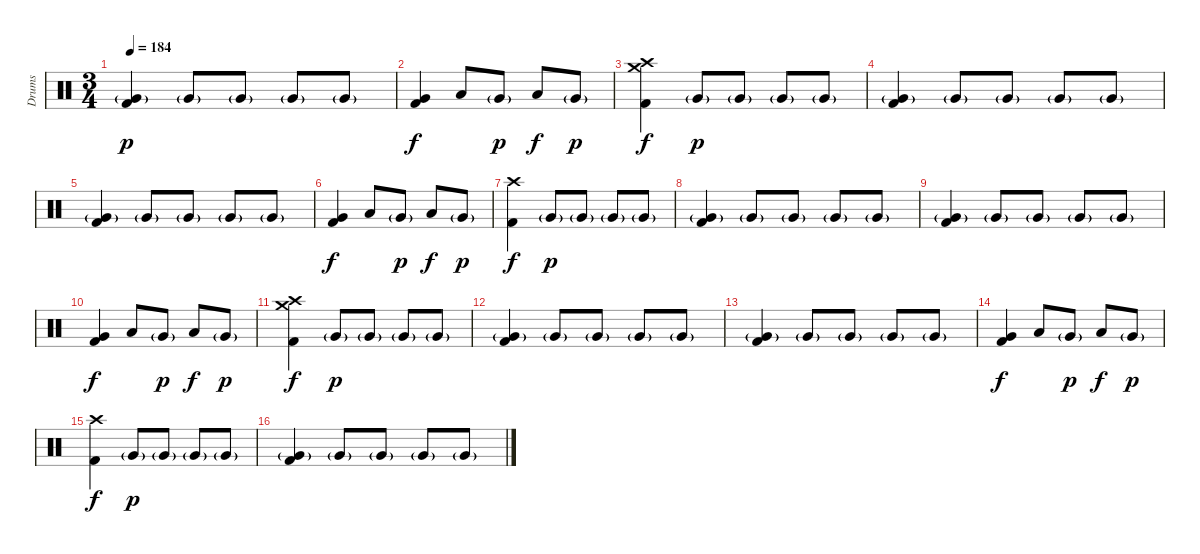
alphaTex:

\track ("Drums" "Drums") {instrument percussion}
\staff {score}
\articulation defaults
\ts (3 4)
\tempo 184
\clef neutral
\ks c
("Very Low Tom (hit)"{g} "Kick (hit) 2").4{dy p} "Very Low Tom (hit)"{g}.8 "Very Low Tom (hit)"{g}.8 "Very Low Tom (hit)"{g}.8 "Very Low Tom (hit)"{g}.8 |
("Very Low Tom (hit)" "Kick (hit) 2").4{dy f} "Low Tom (hit)".8 "Very Low Tom (hit)"{g}.8{dy p} "Low Floor Tom (hit)".8{dy f} "Very Low Tom (hit)"{g}.8{dy p} |
("Crash high (hit)" "Crash medium (hit)" "Kick (hit) 2").4{dy f} "Very Low Tom (hit)"{g}.8{dy p} "Very Low Tom (hit)"{g}.8 "Very Low Tom (hit)"{g}.8 "Very Low Tom (hit)"{g}.8 |
("Very Low Tom (hit)"{g} "Kick (hit) 2").4 "Very Low Tom (hit)"{g}.8 "Very Low Tom (hit)"{g}.8 "Very Low Tom (hit)"{g}.8 "Very Low Tom (hit)"{g}.8 |
("Very Low Tom (hit)"{g} "Kick (hit) 2").4 "Very Low Tom (hit)"{g}.8 "Very Low Tom (hit)"{g}.8 "Very Low Tom (hit)"{g}.8 "Very Low Tom (hit)"{g}.8 |
("Very Low Tom (hit)" "Kick (hit) 2").4{dy f} "Low Tom (hit)".8 "Very Low Tom (hit)"{g}.8{dy p} "Low Floor Tom (hit)".8{dy f} "Very Low Tom (hit)"{g}.8{dy p} |
("Crash high (hit)" "Kick (hit) 2").4{dy f} "Very Low Tom (hit)"{g}.8{dy p} "Very Low Tom (hit)"{g}.8 "Very Low Tom (hit)"{g}.8 "Very Low Tom (hit)"{g}.8 |
("Very Low Tom (hit)"{g} "Kick (hit) 2").4 "Very Low Tom (hit)"{g}.8 "Very Low Tom (hit)"{g}.8 "Very Low Tom (hit)"{g}.8 "Very Low Tom (hit)"{g}.8 |
("Very Low Tom (hit)"{g} "Kick (hit) 2").4 "Very Low Tom (hit)"{g}.8 "Very Low Tom (hit)"{g}.8 "Very Low Tom (hit)"{g}.8 "Very Low Tom (hit)"{g}.8 |
("Very Low Tom (hit)" "Kick (hit) 2").4{dy f} "Low Tom (hit)".8 "Very Low Tom (hit)"{g}.8{dy p} "Low Floor Tom (hit)".8{dy f} "Very Low Tom (hit)"{g}.8{dy p} |
("Crash high (hit)" "Crash medium (hit)" "Kick (hit) 2").4{dy f} "Very Low Tom (hit)"{g}.8{dy p} "Very Low Tom (hit)"{g}.8 "Very Low Tom (hit)"{g}.8 "Very Low Tom (hit)"{g}.8 |
("Very Low Tom (hit)"{g} "Kick (hit) 2").4 "Very Low Tom (hit)"{g}.8 "Very Low Tom (hit)"{g}.8 "Very Low Tom (hit)"{g}.8 "Very Low Tom (hit)"{g}.8 |
("Very Low Tom (hit)"{g} "Kick (hit) 2").4 "Very Low Tom (hit)"{g}.8 "Very Low Tom (hit)"{g}.8 "Very Low Tom (hit)"{g}.8 "Very Low Tom (hit)"{g}.8 |
("Very Low Tom (hit)" "Kick (hit) 2").4{dy f} "Low Tom (hit)".8 "Very Low Tom (hit)"{g}.8{dy p} "Low Floor Tom (hit)".8{dy f} "Very Low Tom (hit)"{g}.8{dy p} |
("Crash high (hit)" "Kick (hit) 2").4{dy f} "Very Low Tom (hit)"{g}.8{dy p} "Very Low Tom (hit)"{g}.8 "Very Low Tom (hit)"{g}.8 "Very Low Tom (hit)"{g}.8 |
("Very Low Tom (hit)"{g} "Kick (hit) 2").4 "Very Low Tom (hit)"{g}.8 "Very Low Tom (hit)"{g}.8 "Very Low Tom (hit)"{g}.8 "Very Low Tom (hit)"{g}.8
